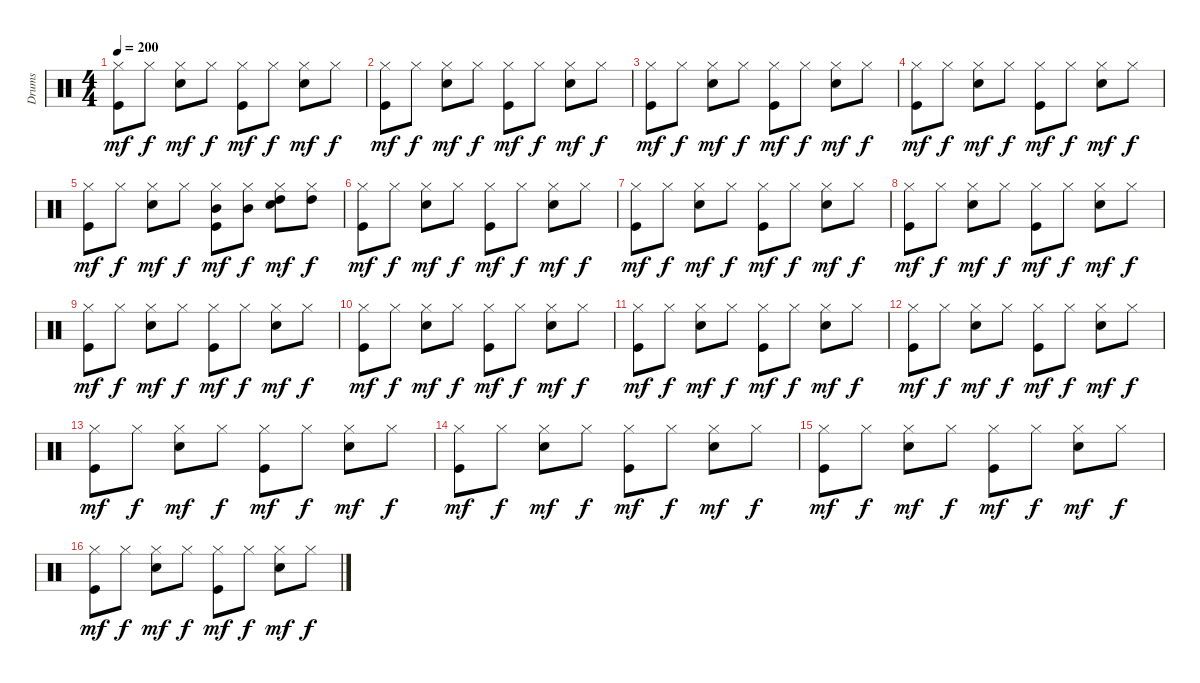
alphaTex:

\track ("Drums" "Drums") {instrument percussion}
\staff {score}
\articulation defaults
\ts (4 4)
\tempo 200
\clef neutral
\ks c
("Hi-Hat (closed)" "Kick (hit)").8{dy mf} "Hi-Hat (closed)".8{dy f} ("Hi-Hat (closed)" "Electric Snare (hit)").8{dy mf} "Hi-Hat (closed)".8{dy f} ("Hi-Hat (closed)" "Kick (hit)").8{dy mf} "Hi-Hat (closed)".8{dy f} ("Hi-Hat (closed)" "Electric Snare (hit)").8{dy mf} "Hi-Hat (closed)".8{dy f} |
("Hi-Hat (closed)" "Kick (hit)").8{dy mf} "Hi-Hat (closed)".8{dy f} ("Hi-Hat (closed)" "Electric Snare (hit)").8{dy mf} "Hi-Hat (closed)".8{dy f} ("Hi-Hat (closed)" "Kick (hit)").8{dy mf} "Hi-Hat (closed)".8{dy f} ("Hi-Hat (closed)" "Electric Snare (hit)").8{dy mf} "Hi-Hat (closed)".8{dy f} |
("Hi-Hat (closed)" "Kick (hit)").8{dy mf} "Hi-Hat (closed)".8{dy f} ("Hi-Hat (closed)" "Electric Snare (hit)").8{dy mf} "Hi-Hat (closed)".8{dy f} ("Hi-Hat (closed)" "Kick (hit)").8{dy mf} "Hi-Hat (closed)".8{dy f} ("Hi-Hat (closed)" "Electric Snare (hit)").8{dy mf} "Hi-Hat (closed)".8{dy f} |
("Hi-Hat (closed)" "Kick (hit)").8{dy mf} "Hi-Hat (closed)".8{dy f} ("Hi-Hat (closed)" "Electric Snare (hit)").8{dy mf} "Hi-Hat (closed)".8{dy f} ("Hi-Hat (closed)" "Kick (hit)").8{dy mf} "Hi-Hat (closed)".8{dy f} ("Hi-Hat (closed)" "Electric Snare (hit)").8{dy mf} "Hi-Hat (closed)".8{dy f} |
("Hi-Hat (closed)" "Kick (hit)").8{dy mf} "Hi-Hat (closed)".8{dy f} ("Hi-Hat (closed)" "Electric Snare (hit)").8{dy mf} "Hi-Hat (closed)".8{dy f} ("Mid Tom (hit)" "Hi-Hat (closed)" "Kick (hit)").8{dy mf} ("Mid Tom (hit)" "Hi-Hat (closed)").8{dy f} ("High Tom (hit)" "Hi-Hat (closed)" "Electric Snare (hit)").8{dy mf} ("High Tom (hit)" "Hi-Hat (closed)").8{dy f} |
("Hi-Hat (closed)" "Kick (hit)").8{dy mf} "Hi-Hat (closed)".8{dy f} ("Hi-Hat (closed)" "Electric Snare (hit)").8{dy mf} "Hi-Hat (closed)".8{dy f} ("Hi-Hat (closed)" "Kick (hit)").8{dy mf} "Hi-Hat (closed)".8{dy f} ("Hi-Hat (closed)" "Electric Snare (hit)").8{dy mf} "Hi-Hat (closed)".8{dy f} |
("Hi-Hat (closed)" "Kick (hit)").8{dy mf} "Hi-Hat (closed)".8{dy f} ("Hi-Hat (closed)" "Electric Snare (hit)").8{dy mf} "Hi-Hat (closed)".8{dy f} ("Hi-Hat (closed)" "Kick (hit)").8{dy mf} "Hi-Hat (closed)".8{dy f} ("Hi-Hat (closed)" "Electric Snare (hit)").8{dy mf} "Hi-Hat (closed)".8{dy f} |
("Hi-Hat (closed)" "Kick (hit)").8{dy mf} "Hi-Hat (closed)".8{dy f} ("Hi-Hat (closed)" "Electric Snare (hit)").8{dy mf} "Hi-Hat (closed)".8{dy f} ("Hi-Hat (closed)" "Kick (hit)").8{dy mf} "Hi-Hat (closed)".8{dy f} ("Hi-Hat (closed)" "Electric Snare (hit)").8{dy mf} "Hi-Hat (closed)".8{dy f} |
("Hi-Hat (closed)" "Kick (hit)").8{dy mf} "Hi-Hat (closed)".8{dy f} ("Hi-Hat (closed)" "Electric Snare (hit)").8{dy mf} "Hi-Hat (closed)".8{dy f} ("Hi-Hat (closed)" "Kick (hit)").8{dy mf} "Hi-Hat (closed)".8{dy f} ("Hi-Hat (closed)" "Electric Snare (hit)").8{dy mf} "Hi-Hat (closed)".8{dy f} |
("Hi-Hat (closed)" "Kick (hit)").8{dy mf} "Hi-Hat (closed)".8{dy f} ("Hi-Hat (closed)" "Electric Snare (hit)").8{dy mf} "Hi-Hat (closed)".8{dy f} ("Hi-Hat (closed)" "Kick (hit)").8{dy mf} "Hi-Hat (closed)".8{dy f} ("Hi-Hat (closed)" "Electric Snare (hit)").8{dy mf} "Hi-Hat (closed)".8{dy f} |
("Hi-Hat (closed)" "Kick (hit)").8{dy mf} "Hi-Hat (closed)".8{dy f} ("Hi-Hat (closed)" "Electric Snare (hit)").8{dy mf} "Hi-Hat (closed)".8{dy f} ("Hi-Hat (closed)" "Kick (hit)").8{dy mf} "Hi-Hat (closed)".8{dy f} ("Hi-Hat (closed)" "Electric Snare (hit)").8{dy mf} "Hi-Hat (closed)".8{dy f} |
("Hi-Hat (closed)" "Kick (hit)").8{dy mf} "Hi-Hat (closed)".8{dy f} ("Hi-Hat (closed)" "Electric Snare (hit)").8{dy mf} "Hi-Hat (closed)".8{dy f} ("Hi-Hat (closed)" "Kick (hit)").8{dy mf} "Hi-Hat (closed)".8{dy f} ("Hi-Hat (closed)" "Electric Snare (hit)").8{dy mf} "Hi-Hat (closed)".8{dy f} |
("Hi-Hat (closed)" "Kick (hit)").8{dy mf} "Hi-Hat (closed)".8{dy f} ("Hi-Hat (closed)" "Electric Snare (hit)").8{dy mf} "Hi-Hat (closed)".8{dy f} ("Hi-Hat (closed)" "Kick (hit)").8{dy mf} "Hi-Hat (closed)".8{dy f} ("Hi-Hat (closed)" "Electric Snare (hit)").8{dy mf} "Hi-Hat (closed)".8{dy f} |
("Hi-Hat (closed)" "Kick (hit)").8{dy mf} "Hi-Hat (closed)".8{dy f} ("Hi-Hat (closed)" "Electric Snare (hit)").8{dy mf} "Hi-Hat (closed)".8{dy f} ("Hi-Hat (closed)" "Kick (hit)").8{dy mf} "Hi-Hat (closed)".8{dy f} ("Hi-Hat (closed)" "Electric Snare (hit)").8{dy mf} "Hi-Hat (closed)".8{dy f} |
("Hi-Hat (closed)" "Kick (hit)").8{dy mf} "Hi-Hat (closed)".8{dy f} ("Hi-Hat (closed)" "Electric Snare (hit)").8{dy mf} "Hi-Hat (closed)".8{dy f} ("Hi-Hat (closed)" "Kick (hit)").8{dy mf} "Hi-Hat (closed)".8{dy f} ("Hi-Hat (closed)" "Electric Snare (hit)").8{dy mf} "Hi-Hat (closed)".8{dy f} |
("Hi-Hat (closed)" "Kick (hit)").8{dy mf} "Hi-Hat (closed)".8{dy f} ("Hi-Hat (closed)" "Electric Snare (hit)").8{dy mf} "Hi-Hat (closed)".8{dy f} ("Hi-Hat (closed)" "Kick (hit)").8{dy mf} "Hi-Hat (closed)".8{dy f} ("Hi-Hat (closed)" "Electric Snare (hit)").8{dy mf} "Hi-Hat (closed)".8{dy f}
